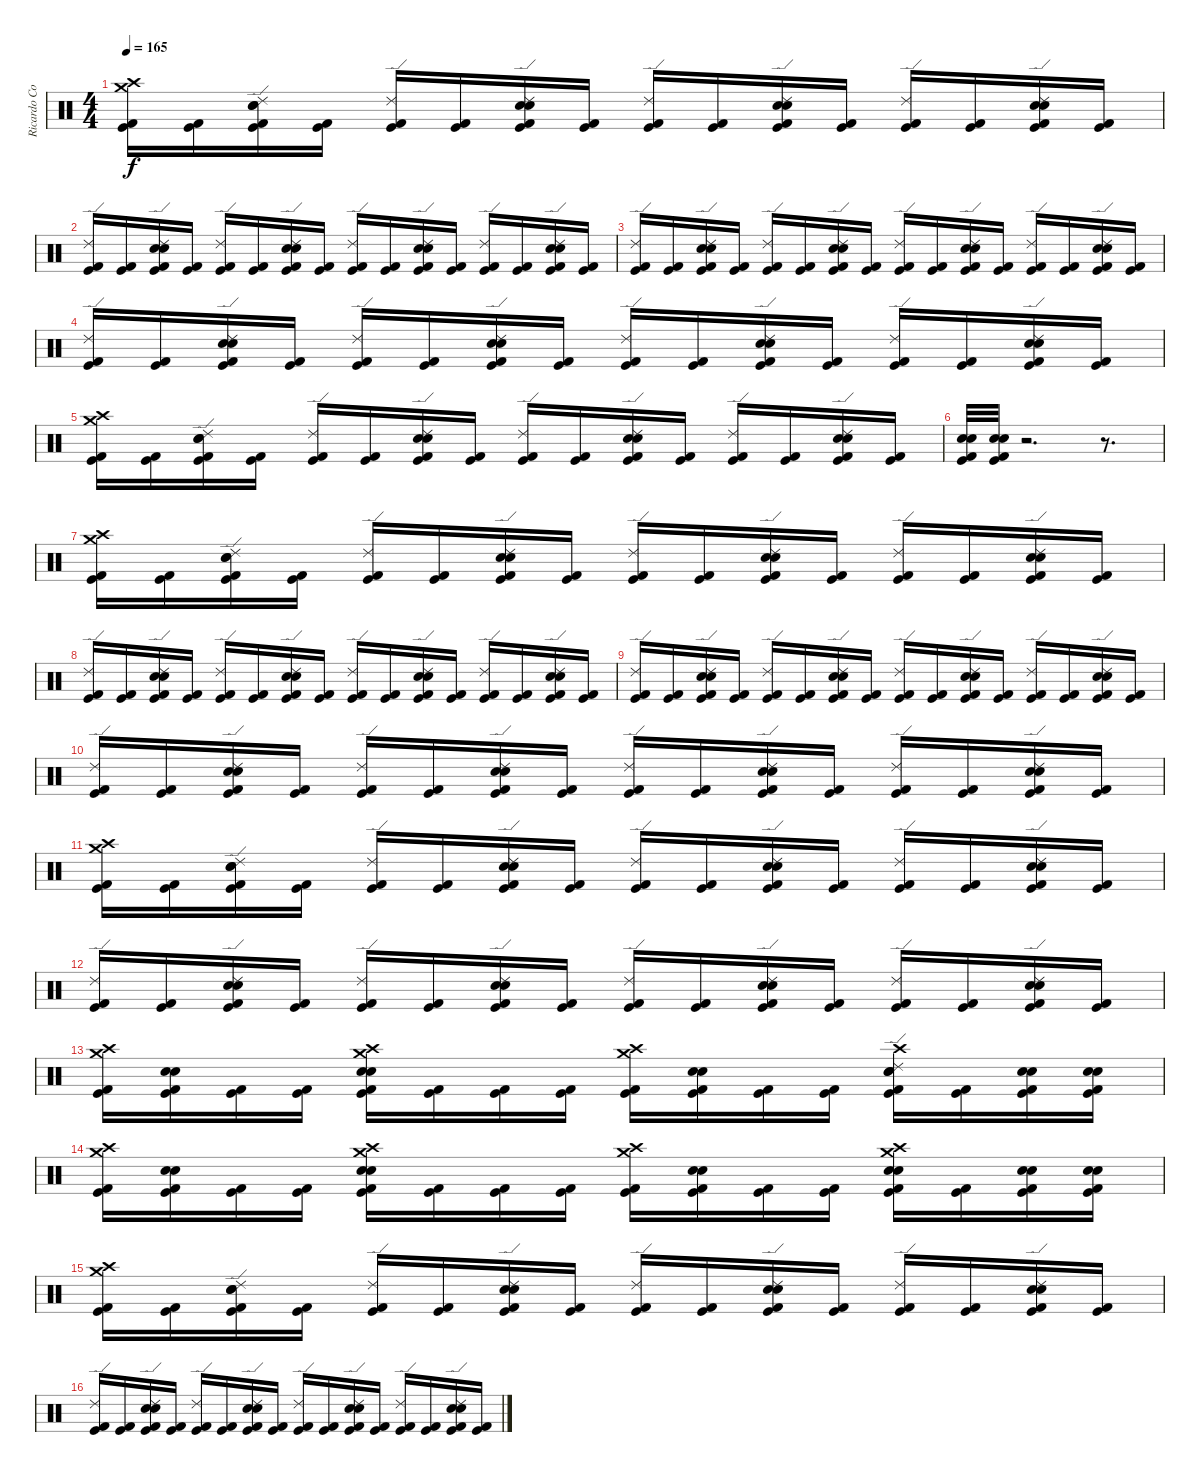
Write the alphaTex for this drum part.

\track ("Ricardo Confessori" "Ricardo Co") {instrument percussion}
\staff {score}
\articulation defaults
\ts (4 4)
\tempo 165
\clef neutral
\ks c
("Crash high (hit)" "Crash medium (hit)" "Kick (hit) 2" "Kick (hit)").16{dy f} ("Kick (hit) 2" "Kick (hit)").16 ("Ride (edge) 2" "Snare (hit) 2" "Electric Snare (hit)" "Kick (hit) 2" "Kick (hit)").16 ("Kick (hit) 2" "Kick (hit)").16 ("Ride (edge) 2" "Kick (hit) 2" "Kick (hit)").16 ("Kick (hit) 2" "Kick (hit)").16 ("Ride (edge) 2" "Electric Snare (hit)" "Snare (hit) 2" "Kick (hit) 2" "Kick (hit)").16 ("Kick (hit) 2" "Kick (hit)").16 ("Ride (edge) 2" "Kick (hit) 2" "Kick (hit)").16 ("Kick (hit) 2" "Kick (hit)").16 ("Ride (edge) 2" "Snare (hit) 2" "Electric Snare (hit)" "Kick (hit) 2" "Kick (hit)").16 ("Kick (hit) 2" "Kick (hit)").16 ("Ride (edge) 2" "Kick (hit) 2" "Kick (hit)").16 ("Kick (hit) 2" "Kick (hit)").16 ("Ride (edge) 2" "Electric Snare (hit)" "Snare (hit) 2" "Kick (hit) 2" "Kick (hit)").16 ("Kick (hit) 2" "Kick (hit)").16 |
("Ride (edge) 2" "Kick (hit) 2" "Kick (hit)").16 ("Kick (hit) 2" "Kick (hit)").16 ("Ride (edge) 2" "Snare (hit) 2" "Electric Snare (hit)" "Kick (hit) 2" "Kick (hit)").16 ("Kick (hit) 2" "Kick (hit)").16 ("Ride (edge) 2" "Kick (hit) 2" "Kick (hit)").16 ("Kick (hit) 2" "Kick (hit)").16 ("Ride (edge) 2" "Electric Snare (hit)" "Snare (hit) 2" "Kick (hit) 2" "Kick (hit)").16 ("Kick (hit) 2" "Kick (hit)").16 ("Ride (edge) 2" "Kick (hit) 2" "Kick (hit)").16 ("Kick (hit) 2" "Kick (hit)").16 ("Ride (edge) 2" "Snare (hit) 2" "Electric Snare (hit)" "Kick (hit) 2" "Kick (hit)").16 ("Kick (hit) 2" "Kick (hit)").16 ("Ride (edge) 2" "Kick (hit) 2" "Kick (hit)").16 ("Kick (hit) 2" "Kick (hit)").16 ("Ride (edge) 2" "Electric Snare (hit)" "Snare (hit) 2" "Kick (hit) 2" "Kick (hit)").16 ("Kick (hit) 2" "Kick (hit)").16 |
("Ride (edge) 2" "Kick (hit) 2" "Kick (hit)").16 ("Kick (hit) 2" "Kick (hit)").16 ("Ride (edge) 2" "Snare (hit) 2" "Electric Snare (hit)" "Kick (hit) 2" "Kick (hit)").16 ("Kick (hit) 2" "Kick (hit)").16 ("Ride (edge) 2" "Kick (hit) 2" "Kick (hit)").16 ("Kick (hit) 2" "Kick (hit)").16 ("Ride (edge) 2" "Electric Snare (hit)" "Snare (hit) 2" "Kick (hit) 2" "Kick (hit)").16 ("Kick (hit) 2" "Kick (hit)").16 ("Ride (edge) 2" "Kick (hit) 2" "Kick (hit)").16 ("Kick (hit) 2" "Kick (hit)").16 ("Ride (edge) 2" "Snare (hit) 2" "Electric Snare (hit)" "Kick (hit) 2" "Kick (hit)").16 ("Kick (hit) 2" "Kick (hit)").16 ("Ride (edge) 2" "Kick (hit) 2" "Kick (hit)").16 ("Kick (hit) 2" "Kick (hit)").16 ("Ride (edge) 2" "Electric Snare (hit)" "Snare (hit) 2" "Kick (hit) 2" "Kick (hit)").16 ("Kick (hit) 2" "Kick (hit)").16 |
("Ride (edge) 2" "Kick (hit) 2" "Kick (hit)").16 ("Kick (hit) 2" "Kick (hit)").16 ("Ride (edge) 2" "Snare (hit) 2" "Electric Snare (hit)" "Kick (hit) 2" "Kick (hit)").16 ("Kick (hit) 2" "Kick (hit)").16 ("Ride (edge) 2" "Kick (hit) 2" "Kick (hit)").16 ("Kick (hit) 2" "Kick (hit)").16 ("Ride (edge) 2" "Electric Snare (hit)" "Snare (hit) 2" "Kick (hit) 2" "Kick (hit)").16 ("Kick (hit) 2" "Kick (hit)").16 ("Ride (edge) 2" "Kick (hit) 2" "Kick (hit)").16 ("Kick (hit) 2" "Kick (hit)").16 ("Ride (edge) 2" "Snare (hit) 2" "Electric Snare (hit)" "Kick (hit) 2" "Kick (hit)").16 ("Kick (hit) 2" "Kick (hit)").16 ("Ride (edge) 2" "Kick (hit) 2" "Kick (hit)").16 ("Kick (hit) 2" "Kick (hit)").16 ("Ride (edge) 2" "Electric Snare (hit)" "Snare (hit) 2" "Kick (hit) 2" "Kick (hit)").16 ("Kick (hit) 2" "Kick (hit)").16 |
("Crash high (hit)" "Crash medium (hit)" "Kick (hit) 2" "Kick (hit)").16 ("Kick (hit) 2" "Kick (hit)").16 ("Ride (edge) 2" "Snare (hit) 2" "Electric Snare (hit)" "Kick (hit) 2" "Kick (hit)").16 ("Kick (hit) 2" "Kick (hit)").16 ("Ride (edge) 2" "Kick (hit) 2" "Kick (hit)").16 ("Kick (hit) 2" "Kick (hit)").16 ("Ride (edge) 2" "Electric Snare (hit)" "Snare (hit) 2" "Kick (hit) 2" "Kick (hit)").16 ("Kick (hit) 2" "Kick (hit)").16 ("Ride (edge) 2" "Kick (hit) 2" "Kick (hit)").16 ("Kick (hit) 2" "Kick (hit)").16 ("Ride (edge) 2" "Snare (hit) 2" "Electric Snare (hit)" "Kick (hit) 2" "Kick (hit)").16 ("Kick (hit) 2" "Kick (hit)").16 ("Ride (edge) 2" "Kick (hit) 2" "Kick (hit)").16 ("Kick (hit) 2" "Kick (hit)").16 ("Ride (edge) 2" "Electric Snare (hit)" "Snare (hit) 2" "Kick (hit) 2" "Kick (hit)").16 ("Kick (hit) 2" "Kick (hit)").16 |
("Electric Snare (hit)" "Kick (hit) 2" "Kick (hit)" "Snare (hit) 2").32 ("Electric Snare (hit)" "Kick (hit) 2" "Kick (hit)" "Snare (hit) 2").32 r.2{d} r.8{d} |
("Crash high (hit)" "Crash medium (hit)" "Kick (hit) 2" "Kick (hit)").16 ("Kick (hit) 2" "Kick (hit)").16 ("Ride (edge) 2" "Snare (hit) 2" "Electric Snare (hit)" "Kick (hit) 2" "Kick (hit)").16 ("Kick (hit) 2" "Kick (hit)").16 ("Ride (edge) 2" "Kick (hit) 2" "Kick (hit)").16 ("Kick (hit) 2" "Kick (hit)").16 ("Ride (edge) 2" "Electric Snare (hit)" "Snare (hit) 2" "Kick (hit) 2" "Kick (hit)").16 ("Kick (hit) 2" "Kick (hit)").16 ("Ride (edge) 2" "Kick (hit) 2" "Kick (hit)").16 ("Kick (hit) 2" "Kick (hit)").16 ("Ride (edge) 2" "Snare (hit) 2" "Electric Snare (hit)" "Kick (hit) 2" "Kick (hit)").16 ("Kick (hit) 2" "Kick (hit)").16 ("Ride (edge) 2" "Kick (hit) 2" "Kick (hit)").16 ("Kick (hit) 2" "Kick (hit)").16 ("Ride (edge) 2" "Electric Snare (hit)" "Snare (hit) 2" "Kick (hit) 2" "Kick (hit)").16 ("Kick (hit) 2" "Kick (hit)").16 |
("Ride (edge) 2" "Kick (hit) 2" "Kick (hit)").16 ("Kick (hit) 2" "Kick (hit)").16 ("Ride (edge) 2" "Snare (hit) 2" "Electric Snare (hit)" "Kick (hit) 2" "Kick (hit)").16 ("Kick (hit) 2" "Kick (hit)").16 ("Ride (edge) 2" "Kick (hit) 2" "Kick (hit)").16 ("Kick (hit) 2" "Kick (hit)").16 ("Ride (edge) 2" "Electric Snare (hit)" "Snare (hit) 2" "Kick (hit) 2" "Kick (hit)").16 ("Kick (hit) 2" "Kick (hit)").16 ("Ride (edge) 2" "Kick (hit) 2" "Kick (hit)").16 ("Kick (hit) 2" "Kick (hit)").16 ("Ride (edge) 2" "Snare (hit) 2" "Electric Snare (hit)" "Kick (hit) 2" "Kick (hit)").16 ("Kick (hit) 2" "Kick (hit)").16 ("Ride (edge) 2" "Kick (hit) 2" "Kick (hit)").16 ("Kick (hit) 2" "Kick (hit)").16 ("Ride (edge) 2" "Electric Snare (hit)" "Snare (hit) 2" "Kick (hit) 2" "Kick (hit)").16 ("Kick (hit) 2" "Kick (hit)").16 |
("Ride (edge) 2" "Kick (hit) 2" "Kick (hit)").16 ("Kick (hit) 2" "Kick (hit)").16 ("Ride (edge) 2" "Snare (hit) 2" "Electric Snare (hit)" "Kick (hit) 2" "Kick (hit)").16 ("Kick (hit) 2" "Kick (hit)").16 ("Ride (edge) 2" "Kick (hit) 2" "Kick (hit)").16 ("Kick (hit) 2" "Kick (hit)").16 ("Ride (edge) 2" "Electric Snare (hit)" "Snare (hit) 2" "Kick (hit) 2" "Kick (hit)").16 ("Kick (hit) 2" "Kick (hit)").16 ("Ride (edge) 2" "Kick (hit) 2" "Kick (hit)").16 ("Kick (hit) 2" "Kick (hit)").16 ("Ride (edge) 2" "Snare (hit) 2" "Electric Snare (hit)" "Kick (hit) 2" "Kick (hit)").16 ("Kick (hit) 2" "Kick (hit)").16 ("Ride (edge) 2" "Kick (hit) 2" "Kick (hit)").16 ("Kick (hit) 2" "Kick (hit)").16 ("Ride (edge) 2" "Electric Snare (hit)" "Snare (hit) 2" "Kick (hit) 2" "Kick (hit)").16 ("Kick (hit) 2" "Kick (hit)").16 |
("Ride (edge) 2" "Kick (hit) 2" "Kick (hit)").16 ("Kick (hit) 2" "Kick (hit)").16 ("Ride (edge) 2" "Snare (hit) 2" "Electric Snare (hit)" "Kick (hit) 2" "Kick (hit)").16 ("Kick (hit) 2" "Kick (hit)").16 ("Ride (edge) 2" "Kick (hit) 2" "Kick (hit)").16 ("Kick (hit) 2" "Kick (hit)").16 ("Ride (edge) 2" "Electric Snare (hit)" "Snare (hit) 2" "Kick (hit) 2" "Kick (hit)").16 ("Kick (hit) 2" "Kick (hit)").16 ("Ride (edge) 2" "Kick (hit) 2" "Kick (hit)").16 ("Kick (hit) 2" "Kick (hit)").16 ("Ride (edge) 2" "Snare (hit) 2" "Electric Snare (hit)" "Kick (hit) 2" "Kick (hit)").16 ("Kick (hit) 2" "Kick (hit)").16 ("Ride (edge) 2" "Kick (hit) 2" "Kick (hit)").16 ("Kick (hit) 2" "Kick (hit)").16 ("Ride (edge) 2" "Electric Snare (hit)" "Snare (hit) 2" "Kick (hit) 2" "Kick (hit)").16 ("Kick (hit) 2" "Kick (hit)").16 |
("Crash high (hit)" "Crash medium (hit)" "Kick (hit) 2" "Kick (hit)").16 ("Kick (hit) 2" "Kick (hit)").16 ("Ride (edge) 2" "Snare (hit) 2" "Electric Snare (hit)" "Kick (hit) 2" "Kick (hit)").16 ("Kick (hit) 2" "Kick (hit)").16 ("Ride (edge) 2" "Kick (hit) 2" "Kick (hit)").16 ("Kick (hit) 2" "Kick (hit)").16 ("Ride (edge) 2" "Electric Snare (hit)" "Snare (hit) 2" "Kick (hit) 2" "Kick (hit)").16 ("Kick (hit) 2" "Kick (hit)").16 ("Ride (edge) 2" "Kick (hit) 2" "Kick (hit)").16 ("Kick (hit) 2" "Kick (hit)").16 ("Ride (edge) 2" "Snare (hit) 2" "Electric Snare (hit)" "Kick (hit) 2" "Kick (hit)").16 ("Kick (hit) 2" "Kick (hit)").16 ("Ride (edge) 2" "Kick (hit) 2" "Kick (hit)").16 ("Kick (hit) 2" "Kick (hit)").16 ("Ride (edge) 2" "Electric Snare (hit)" "Snare (hit) 2" "Kick (hit) 2" "Kick (hit)").16 ("Kick (hit) 2" "Kick (hit)").16 |
("Ride (edge) 2" "Kick (hit) 2" "Kick (hit)").16 ("Kick (hit) 2" "Kick (hit)").16 ("Ride (edge) 2" "Snare (hit) 2" "Electric Snare (hit)" "Kick (hit) 2" "Kick (hit)").16 ("Kick (hit) 2" "Kick (hit)").16 ("Ride (edge) 2" "Kick (hit) 2" "Kick (hit)").16 ("Kick (hit) 2" "Kick (hit)").16 ("Ride (edge) 2" "Electric Snare (hit)" "Snare (hit) 2" "Kick (hit) 2" "Kick (hit)").16 ("Kick (hit) 2" "Kick (hit)").16 ("Ride (edge) 2" "Kick (hit) 2" "Kick (hit)").16 ("Kick (hit) 2" "Kick (hit)").16 ("Ride (edge) 2" "Snare (hit) 2" "Electric Snare (hit)" "Kick (hit) 2" "Kick (hit)").16 ("Kick (hit) 2" "Kick (hit)").16 ("Ride (edge) 2" "Kick (hit) 2" "Kick (hit)").16 ("Kick (hit) 2" "Kick (hit)").16 ("Ride (edge) 2" "Electric Snare (hit)" "Snare (hit) 2" "Kick (hit) 2" "Kick (hit)").16 ("Kick (hit) 2" "Kick (hit)").16 |
("Crash high (hit)" "Crash medium (hit)" "Kick (hit) 2" "Kick (hit)").16 ("Electric Snare (hit)" "Snare (hit) 2" "Kick (hit) 2" "Kick (hit)").16 ("Kick (hit) 2" "Kick (hit)").16 ("Kick (hit) 2" "Kick (hit)").16 ("Electric Snare (hit)" "Snare (hit) 2" "Crash high (hit)" "Crash medium (hit)" "Kick (hit) 2" "Kick (hit)").16 ("Kick (hit) 2" "Kick (hit)").16 ("Kick (hit) 2" "Kick (hit)").16 ("Kick (hit) 2" "Kick (hit)").16 ("Crash high (hit)" "Crash medium (hit)" "Kick (hit) 2" "Kick (hit)").16 ("Electric Snare (hit)" "Snare (hit) 2" "Kick (hit) 2" "Kick (hit)").16 ("Kick (hit) 2" "Kick (hit)").16 ("Kick (hit) 2" "Kick (hit)").16 ("Electric Snare (hit)" "Crash high (hit)" "Snare (hit) 2" "Ride (edge) 2" "Kick (hit) 2" "Kick (hit)").16 ("Kick (hit) 2" "Kick (hit)").16 ("Electric Snare (hit)" "Snare (hit) 2" "Kick (hit) 2" "Kick (hit)").16 ("Electric Snare (hit)" "Snare (hit) 2" "Kick (hit) 2" "Kick (hit)").16 |
("Crash high (hit)" "Crash medium (hit)" "Kick (hit) 2" "Kick (hit)").16 ("Electric Snare (hit)" "Snare (hit) 2" "Kick (hit) 2" "Kick (hit)").16 ("Kick (hit) 2" "Kick (hit)").16 ("Kick (hit) 2" "Kick (hit)").16 ("Crash high (hit)" "Electric Snare (hit)" "Snare (hit) 2" "Crash medium (hit)" "Kick (hit) 2" "Kick (hit)").16 ("Kick (hit) 2" "Kick (hit)").16 ("Kick (hit) 2" "Kick (hit)").16 ("Kick (hit) 2" "Kick (hit)").16 ("Crash high (hit)" "Crash medium (hit)" "Kick (hit) 2" "Kick (hit)").16 ("Electric Snare (hit)" "Snare (hit) 2" "Kick (hit) 2" "Kick (hit)").16 ("Kick (hit) 2" "Kick (hit)").16 ("Kick (hit) 2" "Kick (hit)").16 ("Electric Snare (hit)" "Snare (hit) 2" "Crash high (hit)" "Crash medium (hit)" "Kick (hit) 2" "Kick (hit)").16 ("Kick (hit) 2" "Kick (hit)").16 ("Electric Snare (hit)" "Snare (hit) 2" "Kick (hit) 2" "Kick (hit)").16 ("Electric Snare (hit)" "Snare (hit) 2" "Kick (hit) 2" "Kick (hit)").16 |
("Crash high (hit)" "Crash medium (hit)" "Kick (hit) 2" "Kick (hit)").16 ("Kick (hit) 2" "Kick (hit)").16 ("Ride (edge) 2" "Snare (hit) 2" "Electric Snare (hit)" "Kick (hit) 2" "Kick (hit)").16 ("Kick (hit) 2" "Kick (hit)").16 ("Ride (edge) 2" "Kick (hit) 2" "Kick (hit)").16 ("Kick (hit) 2" "Kick (hit)").16 ("Ride (edge) 2" "Electric Snare (hit)" "Snare (hit) 2" "Kick (hit) 2" "Kick (hit)").16 ("Kick (hit) 2" "Kick (hit)").16 ("Ride (edge) 2" "Kick (hit) 2" "Kick (hit)").16 ("Kick (hit) 2" "Kick (hit)").16 ("Ride (edge) 2" "Snare (hit) 2" "Electric Snare (hit)" "Kick (hit) 2" "Kick (hit)").16 ("Kick (hit) 2" "Kick (hit)").16 ("Ride (edge) 2" "Kick (hit) 2" "Kick (hit)").16 ("Kick (hit) 2" "Kick (hit)").16 ("Ride (edge) 2" "Electric Snare (hit)" "Snare (hit) 2" "Kick (hit) 2" "Kick (hit)").16 ("Kick (hit) 2" "Kick (hit)").16 |
("Ride (edge) 2" "Kick (hit) 2" "Kick (hit)").16 ("Kick (hit) 2" "Kick (hit)").16 ("Ride (edge) 2" "Snare (hit) 2" "Electric Snare (hit)" "Kick (hit) 2" "Kick (hit)").16 ("Kick (hit) 2" "Kick (hit)").16 ("Ride (edge) 2" "Kick (hit) 2" "Kick (hit)").16 ("Kick (hit) 2" "Kick (hit)").16 ("Ride (edge) 2" "Electric Snare (hit)" "Snare (hit) 2" "Kick (hit) 2" "Kick (hit)").16 ("Kick (hit) 2" "Kick (hit)").16 ("Ride (edge) 2" "Kick (hit) 2" "Kick (hit)").16 ("Kick (hit) 2" "Kick (hit)").16 ("Ride (edge) 2" "Snare (hit) 2" "Electric Snare (hit)" "Kick (hit) 2" "Kick (hit)").16 ("Kick (hit) 2" "Kick (hit)").16 ("Ride (edge) 2" "Kick (hit) 2" "Kick (hit)").16 ("Kick (hit) 2" "Kick (hit)").16 ("Ride (edge) 2" "Electric Snare (hit)" "Snare (hit) 2" "Kick (hit) 2" "Kick (hit)").16 ("Kick (hit) 2" "Kick (hit)").16
